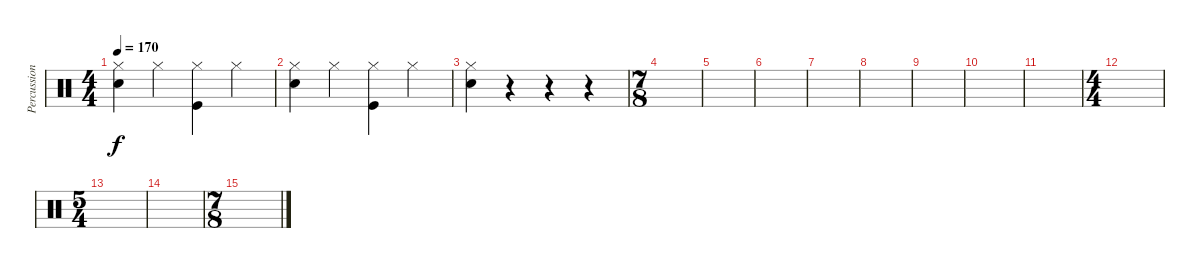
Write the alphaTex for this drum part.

\track ("Percussioni" "Percussion") {instrument percussion}
\staff {score}
\articulation defaults
\ts (4 4)
\tempo 170
\clef neutral
\ks c
("Electric Snare (hit)" "Hi-Hat (closed)").4{dy f} "Hi-Hat (closed)".4 ("Kick (hit)" "Hi-Hat (closed)").4 "Hi-Hat (closed)".4 |
("Electric Snare (hit)" "Hi-Hat (closed)").4 "Hi-Hat (closed)".4 ("Kick (hit)" "Hi-Hat (closed)").4 "Hi-Hat (closed)".4 |
("Electric Snare (hit)" "Hi-Hat (closed)").4 r.4 r.4 r.4 |
\ts (7 8)
|
|
|
|
|
|
|
|
\ts (4 4)
|
\ts (5 4)
|
|
\ts (7 8)
